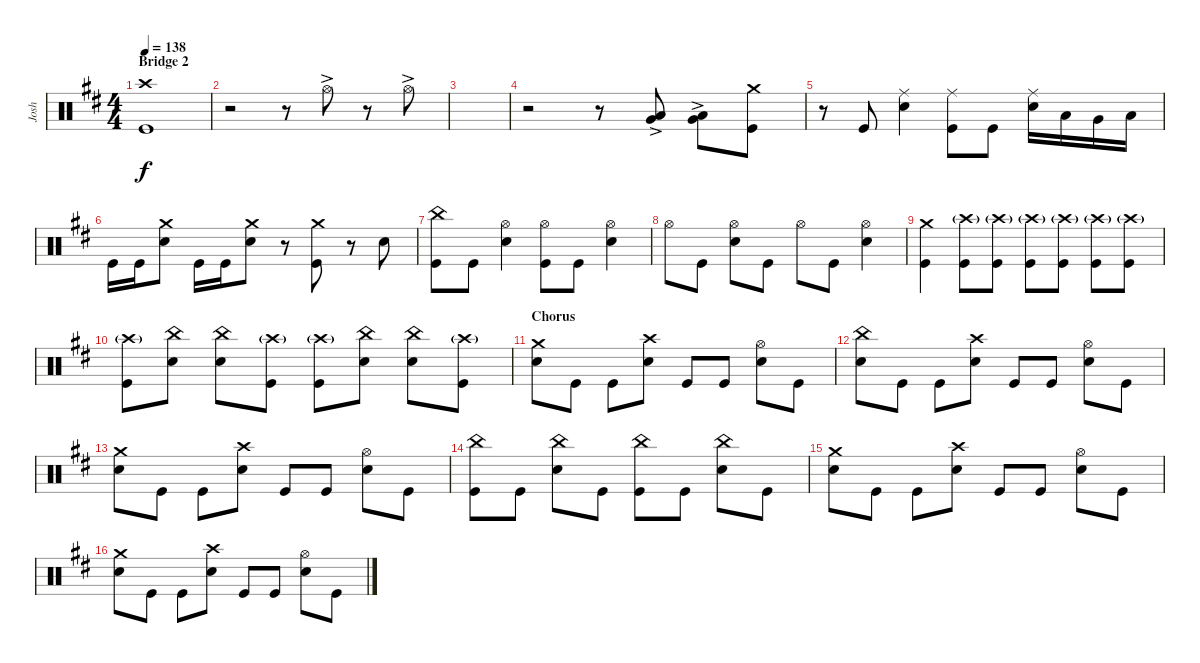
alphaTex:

\track ("Josh" "Josh") {instrument percussion}
\staff {score}
\articulation defaults
\ts (4 4)
\section ("" "Bridge 2")
\tempo 138
\clef neutral
\ks d
("Kick (hit)" "Crash high (hit)").1{dy f} |
r.2 r.8 "Hi-Hat (open)"{ac}.8 r.8 "Hi-Hat (open)"{ac}.8 |
|
r.2 r.8 ("Low Floor Tom (hit)"{ac} "Very Low Tom (hit)"{ac}).8 ("Low Floor Tom (hit)"{ac} "Very Low Tom (hit)"{ac}).8 ("Kick (hit)" "Crash medium (hit)").8 |
r.8 "Kick (hit)".8 ("Snare (hit) 2" "Ride (middle)").4 ("Kick (hit)" "Ride (middle)").8 "Kick (hit)".8 ("Snare (hit) 2" "Ride (middle)").16 "Low Tom (hit)".16 "Very Low Tom (hit)".16 "Low Floor Tom (hit)".16 |
"Kick (hit)".16 "Kick (hit)".16 ("Snare (hit) 2" "Crash medium (hit)").8 "Kick (hit)".16 "Kick (hit)".16 ("Snare (hit) 2" "Crash medium (hit)").8 r.8 ("Kick (hit)" "Crash medium (hit)").8 r.8 "Snare (hit) 2".8 |
("China (hit)" "Kick (hit)").8 "Kick (hit)".8 ("Snare (hit) 2" "Hi-Hat (open)").4 ("Kick (hit)" "Hi-Hat (open)").8 "Kick (hit)".8 ("Snare (hit) 2" "Hi-Hat (open)").4 |
"Hi-Hat (open)".8 "Kick (hit)".8 ("Snare (hit) 2" "Hi-Hat (open)").8 "Kick (hit)".8 "Hi-Hat (open)".8 "Kick (hit)".8 ("Snare (hit) 2" "Hi-Hat (open)").4 |
("Kick (hit)" "Crash medium (hit)").4 ("Kick (hit)" "Crash high (hit)"{g}).8 ("Kick (hit)" "Crash high (hit)"{g}).8 ("Kick (hit)" "Crash high (hit)"{g}).8 ("Kick (hit)" "Crash high (hit)"{g}).8 ("Kick (hit)" "Crash high (hit)"{g}).8 ("Kick (hit)" "Crash high (hit)"{g}).8 |
("Kick (hit)" "Crash high (hit)"{g}).8 ("Snare (hit) 2" "China (hit)").8 ("Snare (hit) 2" "China (hit)").8 ("Kick (hit)" "Crash high (hit)"{g}).8 ("Kick (hit)" "Crash high (hit)"{g}).8 ("Snare (hit) 2" "China (hit)").8 ("Snare (hit) 2" "China (hit)").8 ("Kick (hit)" "Crash high (hit)"{g}).8 |
\section ("" "Chorus")
("Snare (hit) 2" "Crash medium (hit)").8 "Kick (hit)".8 "Kick (hit)".8 ("Snare (hit) 2" "Crash high (hit)").8 "Kick (hit)".8 "Kick (hit)".8 ("Snare (hit) 2" "Hi-Hat (open)").8 "Kick (hit)".8 |
("Snare (hit) 2" "China (hit)").8 "Kick (hit)".8 "Kick (hit)".8 ("Snare (hit) 2" "Crash high (hit)").8 "Kick (hit)".8 "Kick (hit)".8 ("Snare (hit) 2" "Hi-Hat (open)").8 "Kick (hit)".8 |
("Snare (hit) 2" "Crash medium (hit)").8 "Kick (hit)".8 "Kick (hit)".8 ("Snare (hit) 2" "Crash high (hit)").8 "Kick (hit)".8 "Kick (hit)".8 ("Snare (hit) 2" "Hi-Hat (open)").8 "Kick (hit)".8 |
("Kick (hit)" "China (hit)").8 "Kick (hit)".8 ("Snare (hit) 2" "China (hit)").8 "Kick (hit)".8 ("Kick (hit)" "China (hit)").8 "Kick (hit)".8 ("Snare (hit) 2" "China (hit)").8 "Kick (hit)".8 |
("Snare (hit) 2" "Crash medium (hit)").8 "Kick (hit)".8 "Kick (hit)".8 ("Snare (hit) 2" "Crash high (hit)").8 "Kick (hit)".8 "Kick (hit)".8 ("Snare (hit) 2" "Hi-Hat (open)").8 "Kick (hit)".8 |
("Snare (hit) 2" "Crash medium (hit)").8 "Kick (hit)".8 "Kick (hit)".8 ("Snare (hit) 2" "Crash high (hit)").8 "Kick (hit)".8 "Kick (hit)".8 ("Snare (hit) 2" "Hi-Hat (open)").8 "Kick (hit)".8
